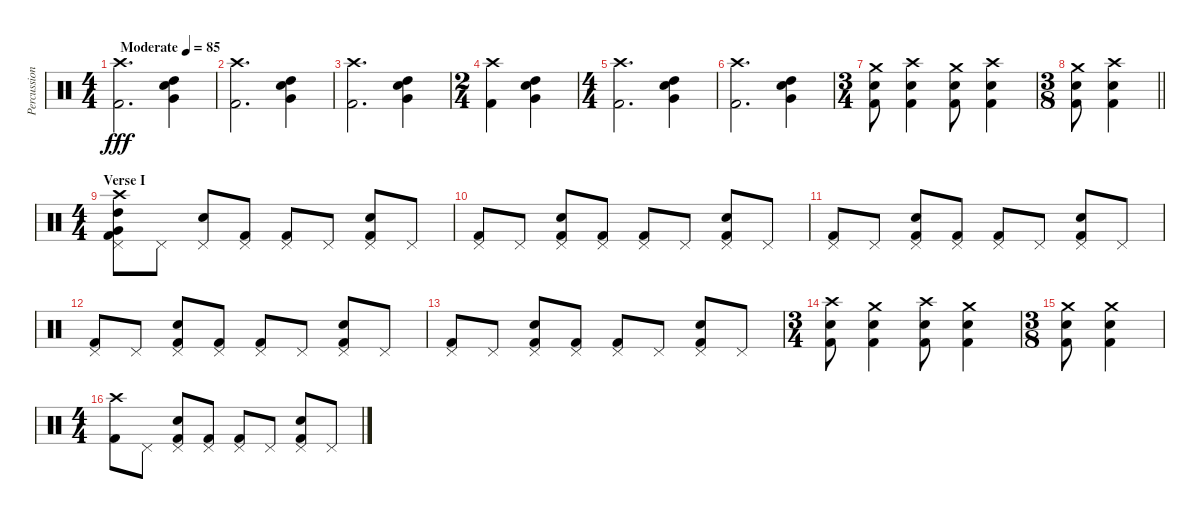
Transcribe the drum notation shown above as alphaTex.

\track ("Percussion" "Percussion") {instrument percussion}
\staff {score}
\articulation defaults
\ts (4 4)
\tempo (85 "Moderate")
\clef neutral
\ks c
("Crash high (hit)" "Kick (hit) 2").2{d dy fff} ("High Tom (hit)" "Snare (hit) 2" "Very Low Tom (hit)").4 |
("Crash high (hit)" "Kick (hit) 2").2{d} ("High Tom (hit)" "Snare (hit) 2" "Very Low Tom (hit)").4 |
("Crash high (hit)" "Kick (hit) 2").2{d} ("High Tom (hit)" "Snare (hit) 2" "Very Low Tom (hit)").4 |
\ts (2 4)
("Crash high (hit)" "Kick (hit) 2").4 ("High Tom (hit)" "Snare (hit) 2" "Very Low Tom (hit)").4 |
\ts (4 4)
("Crash high (hit)" "Kick (hit) 2").2{d} ("High Tom (hit)" "Snare (hit) 2" "Very Low Tom (hit)").4 |
("Crash high (hit)" "Kick (hit) 2").2{d} ("High Tom (hit)" "Snare (hit) 2" "Very Low Tom (hit)").4 |
\ts (3 4)
("Crash medium (hit)" "Snare (hit) 2" "Kick (hit) 2").8 ("Crash high (hit)" "Snare (hit) 2" "Kick (hit) 2").4 ("Crash medium (hit)" "Snare (hit) 2" "Kick (hit) 2").8 ("Crash high (hit)" "Snare (hit) 2" "Kick (hit) 2").4 |
\ts (3 8)
\barLineRight lightlight
("Crash medium (hit)" "Snare (hit) 2" "Kick (hit) 2").8 ("Crash high (hit)" "Snare (hit) 2" "Kick (hit) 2").4 |
\ts (4 4)
\section ("" "Verse I")
("Crash high (hit)" "Very Low Tom (hit)" "High Tom (hit)" "Pedal Hi-Hat (hit)" "Kick (hit) 2").8 "Pedal Hi-Hat (hit)".8 ("Pedal Hi-Hat (hit)" "Snare (hit) 2").8 ("Pedal Hi-Hat (hit)" "Kick (hit) 2").8 ("Pedal Hi-Hat (hit)" "Kick (hit) 2").8 "Pedal Hi-Hat (hit)".8 ("Pedal Hi-Hat (hit)" "Snare (hit) 2" "Kick (hit) 2").8 "Pedal Hi-Hat (hit)".8 |
("Pedal Hi-Hat (hit)" "Kick (hit) 2").8 "Pedal Hi-Hat (hit)".8 ("Pedal Hi-Hat (hit)" "Snare (hit) 2" "Kick (hit) 2").8 ("Pedal Hi-Hat (hit)" "Kick (hit) 2").8 ("Pedal Hi-Hat (hit)" "Kick (hit) 2").8 "Pedal Hi-Hat (hit)".8 ("Pedal Hi-Hat (hit)" "Snare (hit) 2" "Kick (hit) 2").8 "Pedal Hi-Hat (hit)".8 |
("Pedal Hi-Hat (hit)" "Kick (hit) 2").8 "Pedal Hi-Hat (hit)".8 ("Pedal Hi-Hat (hit)" "Snare (hit) 2" "Kick (hit) 2").8 ("Pedal Hi-Hat (hit)" "Kick (hit) 2").8 ("Pedal Hi-Hat (hit)" "Kick (hit) 2").8 "Pedal Hi-Hat (hit)".8 ("Pedal Hi-Hat (hit)" "Snare (hit) 2" "Kick (hit) 2").8 "Pedal Hi-Hat (hit)".8 |
("Pedal Hi-Hat (hit)" "Kick (hit) 2").8 "Pedal Hi-Hat (hit)".8 ("Pedal Hi-Hat (hit)" "Snare (hit) 2" "Kick (hit) 2").8 ("Pedal Hi-Hat (hit)" "Kick (hit) 2").8 ("Pedal Hi-Hat (hit)" "Kick (hit) 2").8 "Pedal Hi-Hat (hit)".8 ("Pedal Hi-Hat (hit)" "Snare (hit) 2" "Kick (hit) 2").8 "Pedal Hi-Hat (hit)".8 |
("Pedal Hi-Hat (hit)" "Kick (hit) 2").8 "Pedal Hi-Hat (hit)".8 ("Pedal Hi-Hat (hit)" "Snare (hit) 2" "Kick (hit) 2").8 ("Pedal Hi-Hat (hit)" "Kick (hit) 2").8 ("Pedal Hi-Hat (hit)" "Kick (hit) 2").8 "Pedal Hi-Hat (hit)".8 ("Pedal Hi-Hat (hit)" "Snare (hit) 2" "Kick (hit) 2").8 "Pedal Hi-Hat (hit)".8 |
\ts (3 4)
("Kick (hit) 2" "Crash high (hit)" "Snare (hit) 2").8 ("Kick (hit) 2" "Crash medium (hit)" "Snare (hit) 2").4 ("Kick (hit) 2" "Crash high (hit)" "Snare (hit) 2").8 ("Kick (hit) 2" "Crash medium (hit)" "Snare (hit) 2").4 |
\ts (3 8)
("Kick (hit) 2" "Crash medium (hit)" "Snare (hit) 2").8 ("Kick (hit) 2" "Crash medium (hit)" "Snare (hit) 2").4 |
\ts (4 4)
("Crash high (hit)" "Kick (hit) 2").8 "Pedal Hi-Hat (hit)".8 ("Pedal Hi-Hat (hit)" "Snare (hit) 2" "Kick (hit) 2").8 ("Pedal Hi-Hat (hit)" "Kick (hit) 2").8 ("Pedal Hi-Hat (hit)" "Kick (hit) 2").8 "Pedal Hi-Hat (hit)".8 ("Pedal Hi-Hat (hit)" "Snare (hit) 2" "Kick (hit) 2").8 "Pedal Hi-Hat (hit)".8
